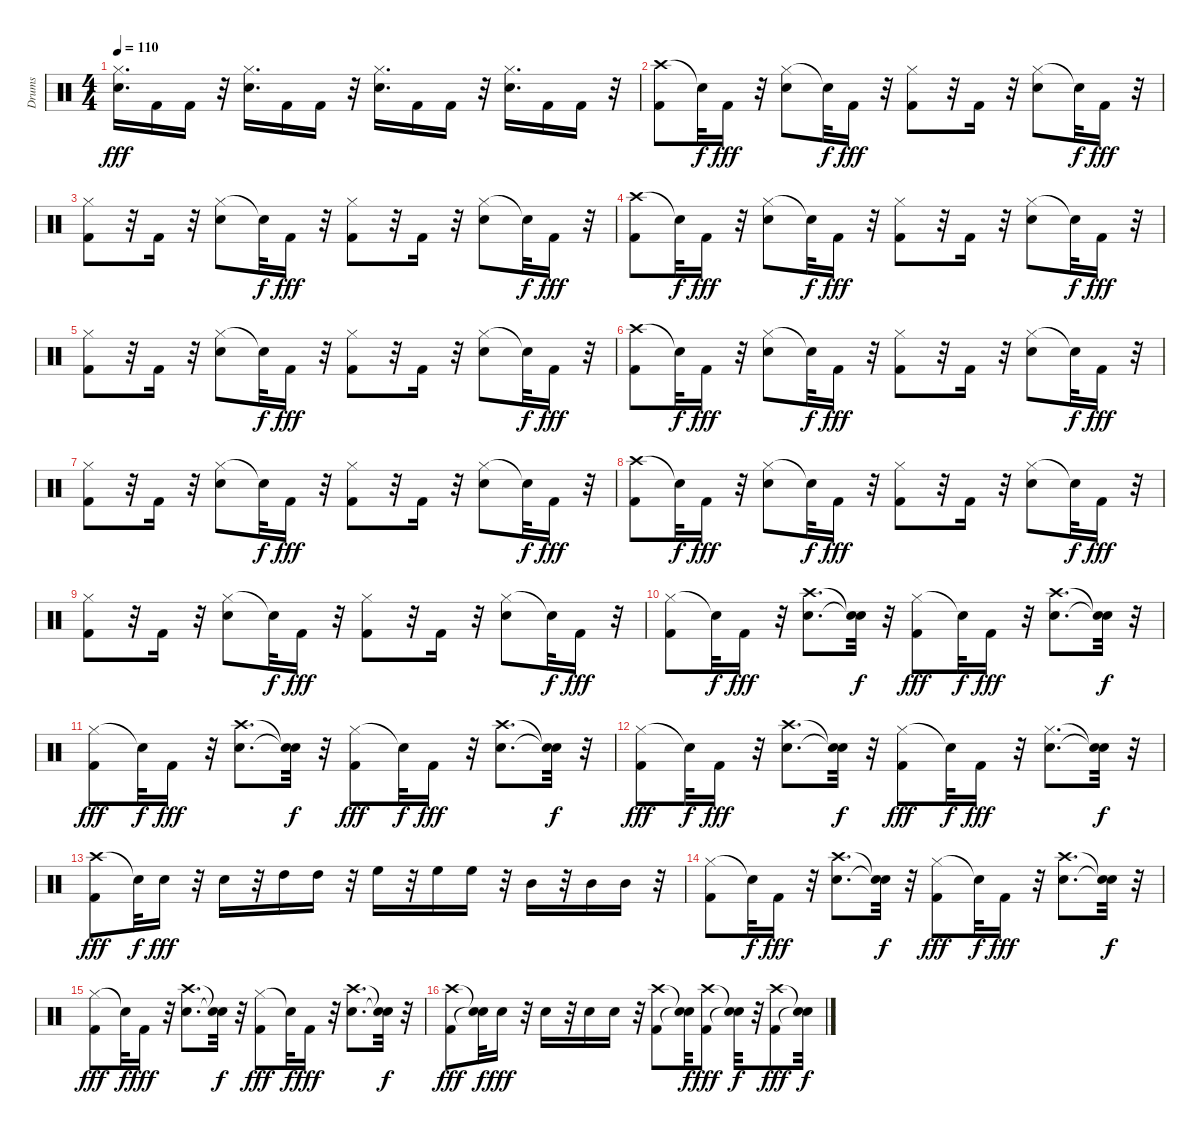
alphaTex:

\track ("Drums" "Drums") {instrument percussion}
\staff {score}
\articulation defaults
\ts (4 4)
\tempo 110
\clef neutral
\ks c
("Hi-Hat (closed)" "Snare (hit) 2").16{d dy fff} "Kick (hit) 2".16 "Kick (hit) 2".16 r.32 ("Hi-Hat (closed)" "Snare (hit) 2").16{d} "Kick (hit) 2".16 "Kick (hit) 2".16 r.32 ("Hi-Hat (closed)" "Snare (hit) 2").16{d} "Kick (hit) 2".16 "Kick (hit) 2".16 r.32 ("Hi-Hat (closed)" "Snare (hit) 2").16{d} "Kick (hit) 2".16 "Kick (hit) 2".16 r.32 |
("Crash high (hit)" "Kick (hit) 2").8 "Snare (hit)"{t}.32{dy f} "Kick (hit) 2".16{dy fff} r.32 ("Hi-Hat (closed)" "Snare (hit) 2").8 "Snare (hit)"{t}.32{dy f} "Kick (hit) 2".16{dy fff} r.32 ("Kick (hit) 2" "Hi-Hat (closed)").8 r.32 "Kick (hit) 2".16 r.32 ("Hi-Hat (closed)" "Snare (hit) 2").8 "Snare (hit)"{t}.32{dy f} "Kick (hit) 2".16{dy fff} r.32 |
("Kick (hit) 2" "Hi-Hat (closed)").8 r.32 "Kick (hit) 2".16 r.32 ("Hi-Hat (closed)" "Snare (hit) 2").8 "Snare (hit)"{t}.32{dy f} "Kick (hit) 2".16{dy fff} r.32 ("Kick (hit) 2" "Hi-Hat (closed)").8 r.32 "Kick (hit) 2".16 r.32 ("Hi-Hat (closed)" "Snare (hit) 2").8 "Snare (hit)"{t}.32{dy f} "Kick (hit) 2".16{dy fff} r.32 |
("Crash high (hit)" "Kick (hit) 2").8 "Snare (hit)"{t}.32{dy f} "Kick (hit) 2".16{dy fff} r.32 ("Hi-Hat (closed)" "Snare (hit) 2").8 "Snare (hit)"{t}.32{dy f} "Kick (hit) 2".16{dy fff} r.32 ("Kick (hit) 2" "Hi-Hat (closed)").8 r.32 "Kick (hit) 2".16 r.32 ("Hi-Hat (closed)" "Snare (hit) 2").8 "Snare (hit)"{t}.32{dy f} "Kick (hit) 2".16{dy fff} r.32 |
("Kick (hit) 2" "Hi-Hat (closed)").8 r.32 "Kick (hit) 2".16 r.32 ("Hi-Hat (closed)" "Snare (hit) 2").8 "Snare (hit)"{t}.32{dy f} "Kick (hit) 2".16{dy fff} r.32 ("Kick (hit) 2" "Hi-Hat (closed)").8 r.32 "Kick (hit) 2".16 r.32 ("Hi-Hat (closed)" "Snare (hit) 2").8 "Snare (hit)"{t}.32{dy f} "Kick (hit) 2".16{dy fff} r.32 |
("Crash high (hit)" "Kick (hit) 2").8 "Snare (hit)"{t}.32{dy f} "Kick (hit) 2".16{dy fff} r.32 ("Hi-Hat (closed)" "Snare (hit) 2").8 "Snare (hit)"{t}.32{dy f} "Kick (hit) 2".16{dy fff} r.32 ("Kick (hit) 2" "Hi-Hat (closed)").8 r.32 "Kick (hit) 2".16 r.32 ("Hi-Hat (closed)" "Snare (hit) 2").8 "Snare (hit)"{t}.32{dy f} "Kick (hit) 2".16{dy fff} r.32 |
("Kick (hit) 2" "Hi-Hat (closed)").8 r.32 "Kick (hit) 2".16 r.32 ("Hi-Hat (closed)" "Snare (hit) 2").8 "Snare (hit)"{t}.32{dy f} "Kick (hit) 2".16{dy fff} r.32 ("Kick (hit) 2" "Hi-Hat (closed)").8 r.32 "Kick (hit) 2".16 r.32 ("Hi-Hat (closed)" "Snare (hit) 2").8 "Snare (hit)"{t}.32{dy f} "Kick (hit) 2".16{dy fff} r.32 |
("Crash high (hit)" "Kick (hit) 2").8 "Snare (hit)"{t}.32{dy f} "Kick (hit) 2".16{dy fff} r.32 ("Hi-Hat (closed)" "Snare (hit) 2").8 "Snare (hit)"{t}.32{dy f} "Kick (hit) 2".16{dy fff} r.32 ("Kick (hit) 2" "Hi-Hat (closed)").8 r.32 "Kick (hit) 2".16 r.32 ("Hi-Hat (closed)" "Snare (hit) 2").8 "Snare (hit)"{t}.32{dy f} "Kick (hit) 2".16{dy fff} r.32 |
("Kick (hit) 2" "Hi-Hat (closed)").8 r.32 "Kick (hit) 2".16 r.32 ("Hi-Hat (closed)" "Snare (hit) 2").8 "Snare (hit)"{t}.32{dy f} "Kick (hit) 2".16{dy fff} r.32 ("Kick (hit) 2" "Hi-Hat (closed)").8 r.32 "Kick (hit) 2".16 r.32 ("Hi-Hat (closed)" "Snare (hit) 2").8 "Snare (hit)"{t}.32{dy f} "Kick (hit) 2".16{dy fff} r.32 |
("Hi-Hat (closed)" "Kick (hit) 2").8 "Snare (hit)"{t}.32{dy f} "Kick (hit) 2".16{dy fff} r.32 ("Crash high (hit)" "Snare (hit) 2").8{d} ("Snare (hit)"{t} "Snare (hit)"{t}).32{dy f} r.32 ("Hi-Hat (closed)" "Kick (hit) 2").8{dy fff} "Snare (hit)"{t}.32{dy f} "Kick (hit) 2".16{dy fff} r.32 ("Crash high (hit)" "Snare (hit) 2").8{d} ("Snare (hit)"{t} "Snare (hit)"{t}).32{dy f} r.32 |
("Hi-Hat (closed)" "Kick (hit) 2").8{dy fff} "Snare (hit)"{t}.32{dy f} "Kick (hit) 2".16{dy fff} r.32 ("Crash high (hit)" "Snare (hit) 2").8{d} ("Snare (hit)"{t} "Snare (hit)"{t}).32{dy f} r.32 ("Hi-Hat (closed)" "Kick (hit) 2").8{dy fff} "Snare (hit)"{t}.32{dy f} "Kick (hit) 2".16{dy fff} r.32 ("Crash high (hit)" "Snare (hit) 2").8{d} ("Snare (hit)"{t} "Snare (hit)"{t}).32{dy f} r.32 |
("Hi-Hat (closed)" "Kick (hit) 2").8{dy fff} "Snare (hit)"{t}.32{dy f} "Kick (hit) 2".16{dy fff} r.32 ("Crash high (hit)" "Snare (hit) 2").8{d} ("Snare (hit)"{t} "Snare (hit)"{t}).32{dy f} r.32 ("Hi-Hat (closed)" "Kick (hit) 2").8{dy fff} "Snare (hit)"{t}.32{dy f} "Kick (hit) 2".16{dy fff} r.32 ("Snare (hit) 2" "Hi-Hat (closed)").8{d} ("Snare (hit)"{t} "Snare (hit)"{t}).32{dy f} r.32 |
("Crash high (hit)" "Kick (hit) 2").8{dy fff} "Snare (hit)"{t}.32{dy f} "Snare (hit) 2".16{dy fff} r.32 "Snare (hit) 2".16 r.32 "High Tom (hit)".16 "High Tom (hit)".16 r.32 "High Floor Tom (hit)".16 r.32 "High Floor Tom (hit)".16 "High Floor Tom (hit)".16 r.32 "Mid Tom (hit)".16 r.32 "Mid Tom (hit)".16 "Mid Tom (hit)".16 r.32 |
("Hi-Hat (closed)" "Kick (hit) 2").8 "Snare (hit)"{t}.32{dy f} "Kick (hit) 2".16{dy fff} r.32 ("Crash high (hit)" "Snare (hit) 2").8{d} ("Snare (hit)"{t} "Snare (hit)"{t}).32{dy f} r.32 ("Hi-Hat (closed)" "Kick (hit) 2").8{dy fff} "Snare (hit)"{t}.32{dy f} "Kick (hit) 2".16{dy fff} r.32 ("Crash high (hit)" "Snare (hit) 2").8{d} ("Snare (hit)"{t} "Snare (hit)"{t}).32{dy f} r.32 |
("Hi-Hat (closed)" "Kick (hit) 2").8{dy fff} "Snare (hit)"{t}.32{dy f} "Kick (hit) 2".16{dy fff} r.32 ("Crash high (hit)" "Snare (hit) 2").8{d} ("Snare (hit)"{t} "Snare (hit)"{t}).32{dy f} r.32 ("Hi-Hat (closed)" "Kick (hit) 2").8{dy fff} "Snare (hit)"{t}.32{dy f} "Kick (hit) 2".16{dy fff} r.32 ("Crash high (hit)" "Snare (hit) 2").8{d} ("Snare (hit)"{t} "Snare (hit)"{t}).32{dy f} r.32 |
("Kick (hit) 2" "Crash high (hit)").8{dy fff} ("Snare (hit)"{t} "Snare (hit)"{t}).32{dy f} "Snare (hit) 2".16{dy fff} r.32 "Snare (hit) 2".16 r.32 "Snare (hit) 2".16 "Snare (hit) 2".16 r.32 ("Kick (hit) 2" "Crash high (hit)").8 ("Snare (hit)"{t} "Snare (hit)"{t}).32{dy f} ("Kick (hit) 2" "Crash high (hit)").8{dy fff} ("Snare (hit)"{t} "Snare (hit)"{t}).32{dy f} r.32 ("Kick (hit) 2" "Crash high (hit)").8{dy fff} ("Snare (hit)"{t} "Snare (hit)"{t}).32{dy f}
